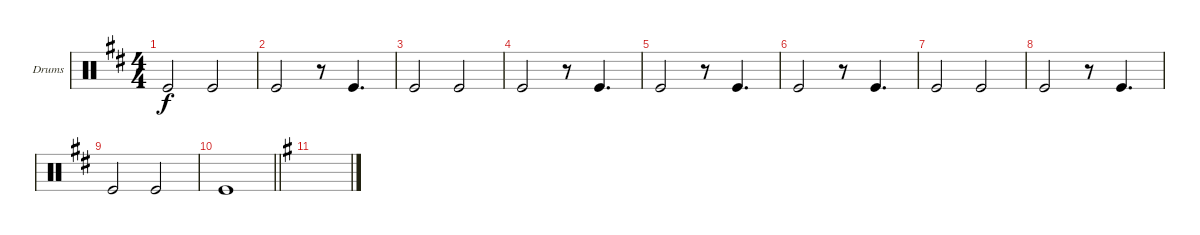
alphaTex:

\defaultSystemsLayout 4
\bracketExtendMode groupsimilarinstruments
\firstSystemTrackNameOrientation horizontal
\otherSystemsTrackNameOrientation horizontal
\track ("Drums" "Drums") {instrument percussion}
\staff {score}
\articulation defaults
\ts (4 4)
\scale
0.551219
\tempo (85 hide)
\accidentals auto
\clef neutral
\ottava regular
\simile none
\ks bminor "Kick (hit)".2{dy f} "Kick (hit)".2
|
\scale
0.448764 "Kick (hit)".2 r.8 "Kick (hit)".4{d} |
\scale
0.525714 "Kick (hit)".2 "Kick (hit)".2 |
\scale
0.474359 "Kick (hit)".2 r.8 "Kick (hit)".4{d} |
\scale
0.513135 "Kick (hit)".2 r.8 "Kick (hit)".4{d} |
\scale
0.486948 "Kick (hit)".2 r.8 "Kick (hit)".4{d} |
\scale
0.608367 "Kick (hit)".2 "Kick (hit)".2 |
\scale
0.39126 "Kick (hit)".2 r.8 "Kick (hit)".4{d} |
\scale
0.692469 "Kick (hit)".2 "Kick (hit)".2 |
\scale
0.306383
\barLineRight lightlight "Kick (hit)".1
|
\scale
0.53825
\ks eminor
|
\scale
0.461666 |
\scale
0.532693 |
\scale
0.467279 |
\scale
0.509764 |
\scale
0.490339
